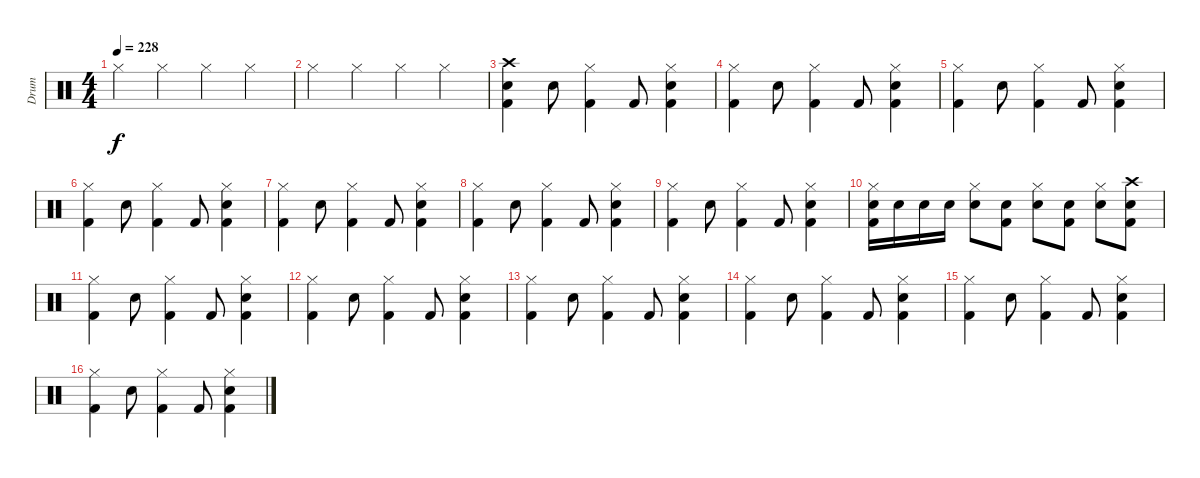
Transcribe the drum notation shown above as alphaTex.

\track ("Drum" "Drum") {instrument percussion}
\staff {score}
\articulation defaults
\ts (4 4)
\tempo 228
\clef neutral
\ks c "Hi-Hat (closed)".4{dy f} "Hi-Hat (closed)".4 "Hi-Hat (closed)".4 "Hi-Hat (closed)".4
|
"Hi-Hat (closed)".4 "Hi-Hat (closed)".4 "Hi-Hat (closed)".4 "Hi-Hat (closed)".4 |
("Crash high (hit)" "Snare (hit) 2" "Kick (hit) 2").4 "Snare (hit) 2".8 ("Hi-Hat (closed)" "Kick (hit) 2").4 "Kick (hit) 2".8 ("Hi-Hat (closed)" "Snare (hit) 2" "Kick (hit) 2").4 |
("Hi-Hat (closed)" "Kick (hit) 2").4 "Snare (hit) 2".8 ("Hi-Hat (closed)" "Kick (hit) 2").4 "Kick (hit) 2".8 ("Hi-Hat (closed)" "Snare (hit) 2" "Kick (hit) 2").4 |
("Hi-Hat (closed)" "Kick (hit) 2").4 "Snare (hit) 2".8 ("Hi-Hat (closed)" "Kick (hit) 2").4 "Kick (hit) 2".8 ("Hi-Hat (closed)" "Snare (hit) 2" "Kick (hit) 2").4 |
("Hi-Hat (closed)" "Kick (hit) 2").4 "Snare (hit) 2".8 ("Hi-Hat (closed)" "Kick (hit) 2").4 "Kick (hit) 2".8 ("Hi-Hat (closed)" "Snare (hit) 2" "Kick (hit) 2").4 |
("Hi-Hat (closed)" "Kick (hit) 2").4 "Snare (hit) 2".8 ("Hi-Hat (closed)" "Kick (hit) 2").4 "Kick (hit) 2".8 ("Hi-Hat (closed)" "Snare (hit) 2" "Kick (hit) 2").4 |
("Hi-Hat (closed)" "Kick (hit) 2").4 "Snare (hit) 2".8 ("Hi-Hat (closed)" "Kick (hit) 2").4 "Kick (hit) 2".8 ("Hi-Hat (closed)" "Snare (hit) 2" "Kick (hit) 2").4 |
("Hi-Hat (closed)" "Kick (hit) 2").4 "Snare (hit) 2".8 ("Hi-Hat (closed)" "Kick (hit) 2").4 "Kick (hit) 2".8 ("Hi-Hat (closed)" "Snare (hit) 2" "Kick (hit) 2").4 |
("Hi-Hat (closed)" "Snare (hit) 2" "Kick (hit) 2").16 "Snare (hit) 2".16 "Snare (hit) 2".16 "Snare (hit) 2".16 ("Hi-Hat (closed)" "Snare (hit) 2").8 ("Snare (hit) 2" "Kick (hit) 2").8 ("Hi-Hat (closed)" "Snare (hit) 2").8 ("Snare (hit) 2" "Kick (hit) 2").8 ("Hi-Hat (closed)" "Snare (hit) 2").8 ("Crash high (hit)" "Snare (hit) 2" "Kick (hit) 2").8 |
("Hi-Hat (closed)" "Kick (hit) 2").4 "Snare (hit) 2".8 ("Hi-Hat (closed)" "Kick (hit) 2").4 "Kick (hit) 2".8 ("Hi-Hat (closed)" "Snare (hit) 2" "Kick (hit) 2").4 |
("Hi-Hat (closed)" "Kick (hit) 2").4 "Snare (hit) 2".8 ("Hi-Hat (closed)" "Kick (hit) 2").4 "Kick (hit) 2".8 ("Hi-Hat (closed)" "Snare (hit) 2" "Kick (hit) 2").4 |
("Hi-Hat (closed)" "Kick (hit) 2").4 "Snare (hit) 2".8 ("Hi-Hat (closed)" "Kick (hit) 2").4 "Kick (hit) 2".8 ("Hi-Hat (closed)" "Snare (hit) 2" "Kick (hit) 2").4 |
("Hi-Hat (closed)" "Kick (hit) 2").4 "Snare (hit) 2".8 ("Hi-Hat (closed)" "Kick (hit) 2").4 "Kick (hit) 2".8 ("Hi-Hat (closed)" "Snare (hit) 2" "Kick (hit) 2").4 |
("Hi-Hat (closed)" "Kick (hit) 2").4 "Snare (hit) 2".8 ("Hi-Hat (closed)" "Kick (hit) 2").4 "Kick (hit) 2".8 ("Hi-Hat (closed)" "Snare (hit) 2" "Kick (hit) 2").4 |
("Hi-Hat (closed)" "Kick (hit) 2").4 "Snare (hit) 2".8 ("Hi-Hat (closed)" "Kick (hit) 2").4 "Kick (hit) 2".8 ("Hi-Hat (closed)" "Snare (hit) 2" "Kick (hit) 2").4
